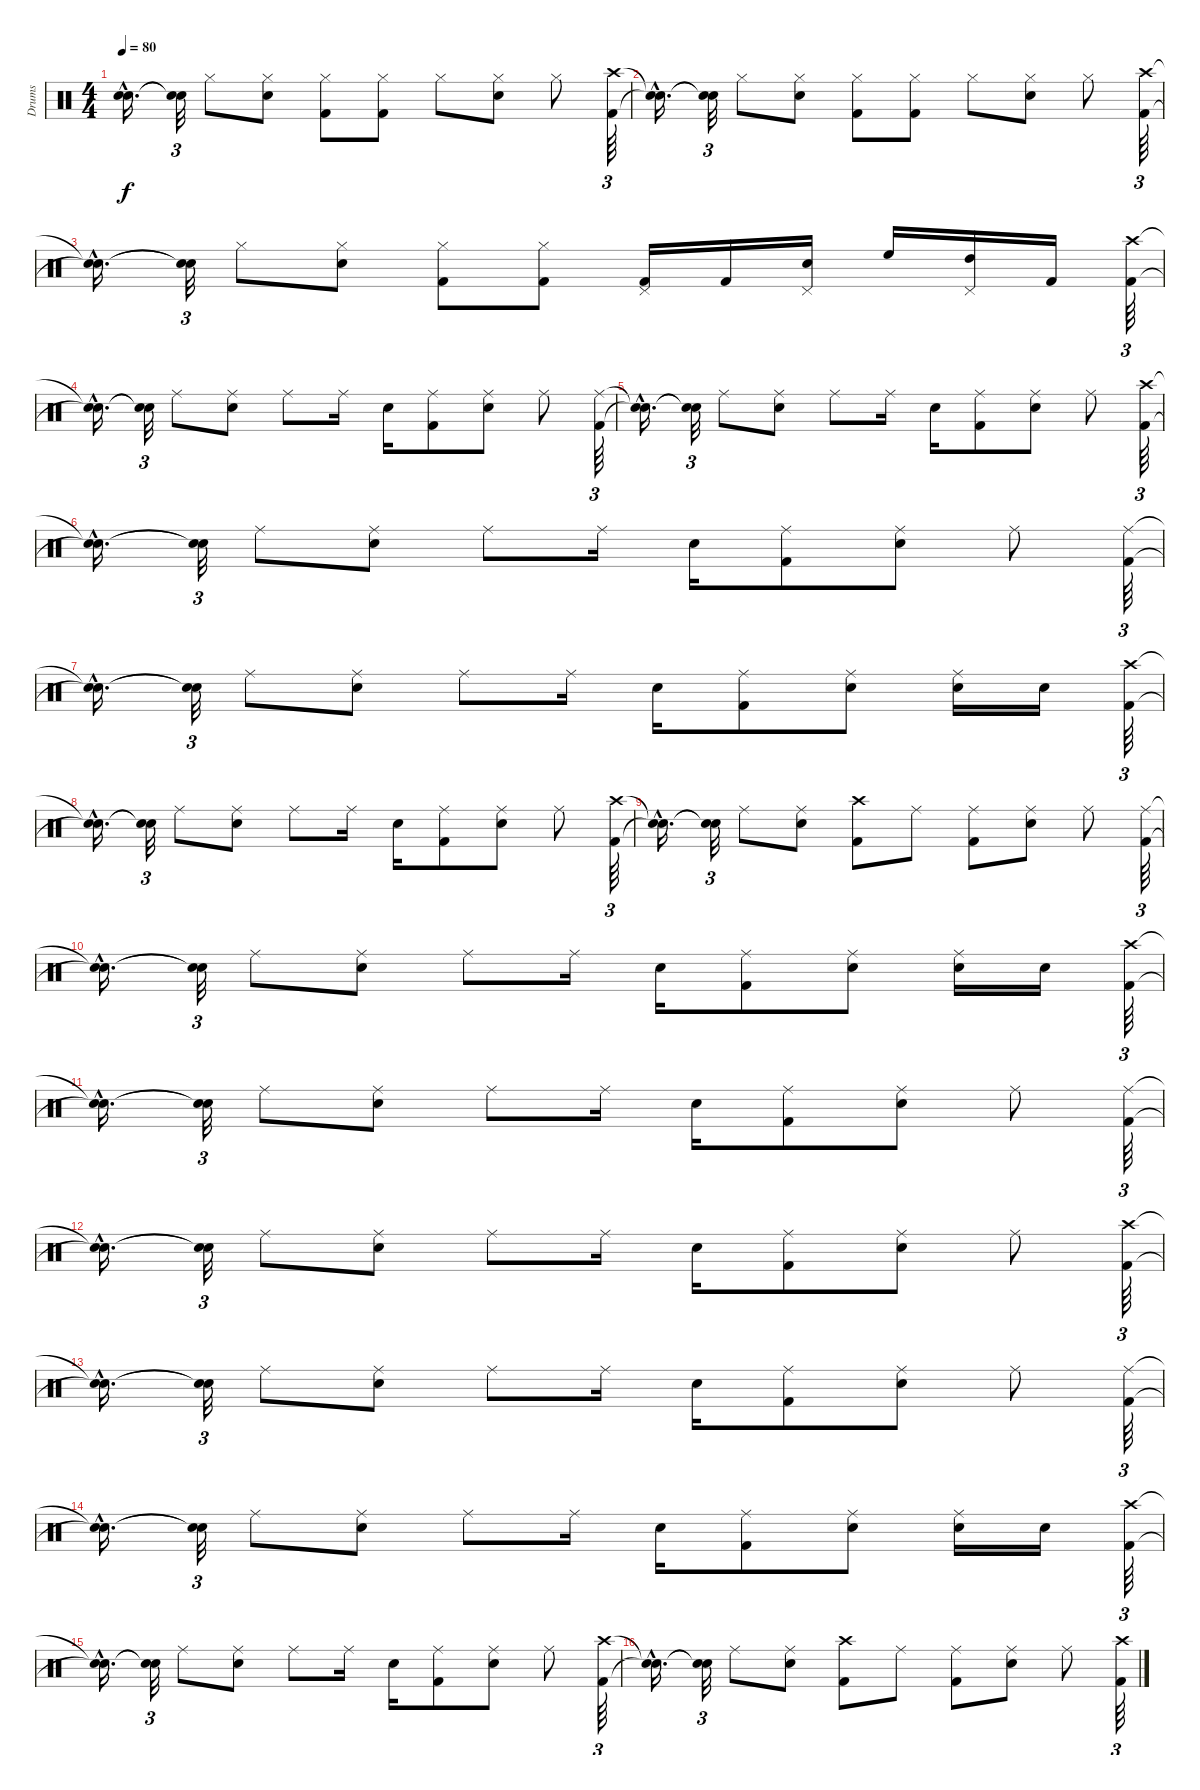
\track ("Drums" "Drums") {instrument percussion}
\staff {score}
\articulation defaults
\ts (4 4)
\tempo 80
\clef neutral
\ks c
("Snare (hit)"{hac t} "Snare (hit)"{hac t}).16{d dy f} ("Snare (hit)"{t} "Snare (hit)"{t}).32{tu (3 2)} "Hi-Hat (closed)".8 ("Hi-Hat (closed)" "Electric Snare (hit)").8 ("Hi-Hat (closed)" "Kick (hit) 2").8 ("Hi-Hat (closed)" "Kick (hit) 2").8 "Hi-Hat (closed)".8 ("Hi-Hat (closed)" "Electric Snare (hit)").8 "Hi-Hat (closed)".8 ("Crash high (hit)" "Kick (hit) 2").64{tu (3 2)} |
("Snare (hit)"{hac t} "Snare (hit)"{hac t}).16{d} ("Snare (hit)"{t} "Snare (hit)"{t}).32{tu (3 2)} "Hi-Hat (closed)".8 ("Hi-Hat (closed)" "Electric Snare (hit)").8 ("Hi-Hat (closed)" "Kick (hit) 2").8 ("Hi-Hat (closed)" "Kick (hit) 2").8 "Hi-Hat (closed)".8 ("Hi-Hat (closed)" "Electric Snare (hit)").8 "Hi-Hat (closed)".8 ("Crash high (hit)" "Kick (hit) 2").64{tu (3 2)} |
("Snare (hit)"{hac t} "Snare (hit)"{hac t}).16{d} ("Snare (hit)"{t} "Snare (hit)"{t}).32{tu (3 2)} "Hi-Hat (closed)".8 ("Hi-Hat (closed)" "Electric Snare (hit)").8 ("Hi-Hat (closed)" "Kick (hit) 2").8 ("Hi-Hat (closed)" "Kick (hit) 2").8 ("Pedal Hi-Hat (hit)" "Kick (hit) 2").16 "Kick (hit) 2".16 ("Pedal Hi-Hat (hit)" "Electric Snare (hit)").16 "High Floor Tom (hit)".16 ("Pedal Hi-Hat (hit)" "High Tom (hit)").16 "Kick (hit) 2".16 ("Crash high (hit)" "Kick (hit) 2").64{tu (3 2)} |
("Snare (hit)"{hac t} "Snare (hit)"{hac t}).16{d} ("Snare (hit)"{t} "Snare (hit)"{t}).32{tu (3 2)} "Ride (middle)".8 ("Ride (middle)" "Electric Snare (hit)").8 "Ride (middle)".8 "Ride (middle)".16 "Electric Snare (hit)".16 ("Ride (middle)" "Kick (hit) 2").8 ("Ride (middle)" "Electric Snare (hit)").8 "Ride (middle)".8 ("Ride (middle)" "Kick (hit) 2").64{tu (3 2)} |
("Snare (hit)"{hac t} "Snare (hit)"{hac t}).16{d} ("Snare (hit)"{t} "Snare (hit)"{t}).32{tu (3 2)} "Ride (middle)".8 ("Ride (middle)" "Electric Snare (hit)").8 "Ride (middle)".8 "Ride (middle)".16 "Electric Snare (hit)".16 ("Ride (middle)" "Kick (hit) 2").8 ("Ride (middle)" "Electric Snare (hit)").8 "Ride (middle)".8 ("Crash high (hit)" "Kick (hit) 2").64{tu (3 2)} |
("Snare (hit)"{hac t} "Snare (hit)"{hac t}).16{d} ("Snare (hit)"{t} "Snare (hit)"{t}).32{tu (3 2)} "Ride (middle)".8 ("Ride (middle)" "Electric Snare (hit)").8 "Ride (middle)".8 "Ride (middle)".16 "Electric Snare (hit)".16 ("Ride (middle)" "Kick (hit) 2").8 ("Ride (middle)" "Electric Snare (hit)").8 "Ride (middle)".8 ("Ride (middle)" "Kick (hit) 2").64{tu (3 2)} |
("Snare (hit)"{hac t} "Snare (hit)"{hac t}).16{d} ("Snare (hit)"{t} "Snare (hit)"{t}).32{tu (3 2)} "Ride (middle)".8 ("Ride (middle)" "Electric Snare (hit)").8 "Ride (middle)".8 "Ride (middle)".16 "Electric Snare (hit)".16 ("Ride (middle)" "Kick (hit) 2").8 ("Ride (middle)" "Electric Snare (hit)").8 ("Ride (middle)" "Electric Snare (hit)").16 "Electric Snare (hit)".16 ("Crash high (hit)" "Kick (hit) 2").64{tu (3 2)} |
("Snare (hit)"{hac t} "Snare (hit)"{hac t}).16{d} ("Snare (hit)"{t} "Snare (hit)"{t}).32{tu (3 2)} "Ride (middle)".8 ("Ride (middle)" "Electric Snare (hit)").8 "Ride (middle)".8 "Ride (middle)".16 "Electric Snare (hit)".16 ("Ride (middle)" "Kick (hit) 2").8 ("Ride (middle)" "Electric Snare (hit)").8 "Ride (middle)".8 ("Crash high (hit)" "Kick (hit) 2").64{tu (3 2)} |
("Snare (hit)"{hac t} "Snare (hit)"{hac t}).16{d} ("Snare (hit)"{t} "Snare (hit)"{t}).32{tu (3 2)} "Ride (middle)".8 ("Ride (middle)" "Electric Snare (hit)").8 ("Crash high (hit)" "Kick (hit) 2").8 "Ride (middle)".8 ("Ride (middle)" "Kick (hit) 2").8 ("Ride (middle)" "Electric Snare (hit)").8 "Ride (middle)".8 ("Ride (middle)" "Kick (hit) 2").64{tu (3 2)} |
("Snare (hit)"{hac t} "Snare (hit)"{hac t}).16{d} ("Snare (hit)"{t} "Snare (hit)"{t}).32{tu (3 2)} "Ride (middle)".8 ("Ride (middle)" "Electric Snare (hit)").8 "Ride (middle)".8 "Ride (middle)".16 "Electric Snare (hit)".16 ("Ride (middle)" "Kick (hit) 2").8 ("Ride (middle)" "Electric Snare (hit)").8 ("Ride (middle)" "Electric Snare (hit)").16 "Electric Snare (hit)".16 ("Crash high (hit)" "Kick (hit) 2").64{tu (3 2)} |
("Snare (hit)"{hac t} "Snare (hit)"{hac t}).16{d} ("Snare (hit)"{t} "Snare (hit)"{t}).32{tu (3 2)} "Ride (middle)".8 ("Ride (middle)" "Electric Snare (hit)").8 "Ride (middle)".8 "Ride (middle)".16 "Electric Snare (hit)".16 ("Ride (middle)" "Kick (hit) 2").8 ("Ride (middle)" "Electric Snare (hit)").8 "Ride (middle)".8 ("Ride (middle)" "Kick (hit) 2").64{tu (3 2)} |
("Snare (hit)"{hac t} "Snare (hit)"{hac t}).16{d} ("Snare (hit)"{t} "Snare (hit)"{t}).32{tu (3 2)} "Ride (middle)".8 ("Ride (middle)" "Electric Snare (hit)").8 "Ride (middle)".8 "Ride (middle)".16 "Electric Snare (hit)".16 ("Ride (middle)" "Kick (hit) 2").8 ("Ride (middle)" "Electric Snare (hit)").8 "Ride (middle)".8 ("Crash high (hit)" "Kick (hit) 2").64{tu (3 2)} |
("Snare (hit)"{hac t} "Snare (hit)"{hac t}).16{d} ("Snare (hit)"{t} "Snare (hit)"{t}).32{tu (3 2)} "Ride (middle)".8 ("Ride (middle)" "Electric Snare (hit)").8 "Ride (middle)".8 "Ride (middle)".16 "Electric Snare (hit)".16 ("Ride (middle)" "Kick (hit) 2").8 ("Ride (middle)" "Electric Snare (hit)").8 "Ride (middle)".8 ("Ride (middle)" "Kick (hit) 2").64{tu (3 2)} |
("Snare (hit)"{hac t} "Snare (hit)"{hac t}).16{d} ("Snare (hit)"{t} "Snare (hit)"{t}).32{tu (3 2)} "Ride (middle)".8 ("Ride (middle)" "Electric Snare (hit)").8 "Ride (middle)".8 "Ride (middle)".16 "Electric Snare (hit)".16 ("Ride (middle)" "Kick (hit) 2").8 ("Ride (middle)" "Electric Snare (hit)").8 ("Ride (middle)" "Electric Snare (hit)").16 "Electric Snare (hit)".16 ("Crash high (hit)" "Kick (hit) 2").64{tu (3 2)} |
("Snare (hit)"{hac t} "Snare (hit)"{hac t}).16{d} ("Snare (hit)"{t} "Snare (hit)"{t}).32{tu (3 2)} "Ride (middle)".8 ("Ride (middle)" "Electric Snare (hit)").8 "Ride (middle)".8 "Ride (middle)".16 "Electric Snare (hit)".16 ("Ride (middle)" "Kick (hit) 2").8 ("Ride (middle)" "Electric Snare (hit)").8 "Ride (middle)".8 ("Crash high (hit)" "Kick (hit) 2").64{tu (3 2)} |
("Snare (hit)"{hac t} "Snare (hit)"{hac t}).16{d} ("Snare (hit)"{t} "Snare (hit)"{t}).32{tu (3 2)} "Ride (middle)".8 ("Ride (middle)" "Electric Snare (hit)").8 ("Crash high (hit)" "Kick (hit) 2").8 "Ride (middle)".8 ("Ride (middle)" "Kick (hit) 2").8 ("Ride (middle)" "Electric Snare (hit)").8 "Ride (middle)".8 ("Crash high (hit)" "Kick (hit) 2").64{tu (3 2)}
